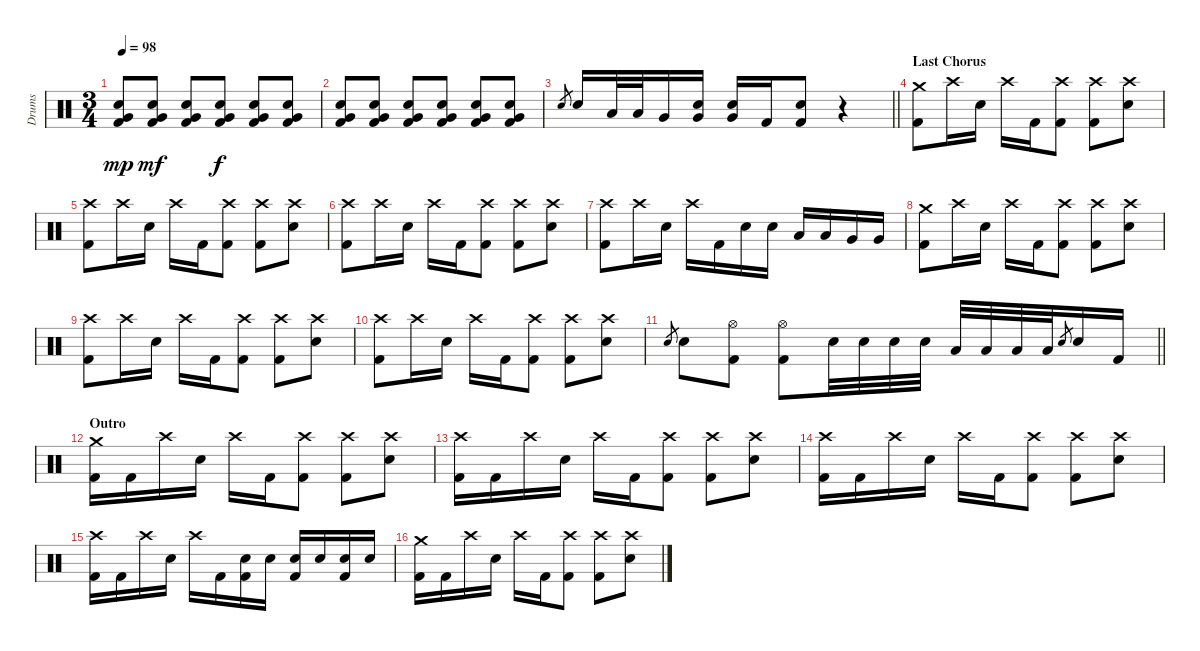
\track ("Drums" "Drums") {instrument percussion}
\staff {score}
\articulation defaults
\ts (3 4)
\tempo 98
\clef neutral
\ks c
("Very Low Tom (hit)" "Electric Snare (hit)" "Kick (hit) 2").8{dy mp} ("Very Low Tom (hit)" "Electric Snare (hit)" "Kick (hit) 2").8{dy mf} ("Very Low Tom (hit)" "Electric Snare (hit)" "Kick (hit) 2").8 ("Very Low Tom (hit)" "Electric Snare (hit)" "Kick (hit) 2").8{dy f} ("Very Low Tom (hit)" "Electric Snare (hit)" "Kick (hit) 2").8 ("Very Low Tom (hit)" "Electric Snare (hit)" "Kick (hit) 2").8 |
("Very Low Tom (hit)" "Electric Snare (hit)" "Kick (hit) 2").8 ("Very Low Tom (hit)" "Electric Snare (hit)" "Kick (hit) 2").8 ("Very Low Tom (hit)" "Electric Snare (hit)" "Kick (hit) 2").8 ("Very Low Tom (hit)" "Electric Snare (hit)" "Kick (hit) 2").8 ("Very Low Tom (hit)" "Electric Snare (hit)" "Kick (hit) 2").8 ("Very Low Tom (hit)" "Electric Snare (hit)" "Kick (hit) 2").8 |
\barLineRight lightlight "Electric Snare (hit)".8{gr} "Electric Snare (hit)".16 "Low Tom (hit)".32 "Low Tom (hit)".32 "Very Low Tom (hit)".16
("Very Low Tom (hit)" "Electric Snare (hit)").16 ("Very Low Tom (hit)" "Electric Snare (hit)").16 "Kick (hit) 2".16 ("Electric Snare (hit)" "Kick (hit) 2").8 r.4 |
\section ("" "Last Chorus")
("Crash medium (hit)" "Kick (hit) 2").8 "Crash high (hit)".16 "Electric Snare (hit)".16 "Crash high (hit)".16 "Kick (hit) 2".16 ("Crash high (hit)" "Kick (hit) 2").8 ("Crash high (hit)" "Kick (hit) 2").8 ("Crash high (hit)" "Electric Snare (hit)").8 |
("Crash high (hit)" "Kick (hit) 2").8 "Crash high (hit)".16 "Electric Snare (hit)".16 "Crash high (hit)".16 "Kick (hit) 2".16 ("Crash high (hit)" "Kick (hit) 2").8 ("Crash high (hit)" "Kick (hit) 2").8 ("Crash high (hit)" "Electric Snare (hit)").8 |
("Crash high (hit)" "Kick (hit) 2").8 "Crash high (hit)".16 "Electric Snare (hit)".16 "Crash high (hit)".16 "Kick (hit) 2".16 ("Crash high (hit)" "Kick (hit) 2").8 ("Crash high (hit)" "Kick (hit) 2").8 ("Crash high (hit)" "Electric Snare (hit)").8 |
("Crash high (hit)" "Kick (hit) 2").8 "Crash high (hit)".16 "Electric Snare (hit)".16 "Crash high (hit)".16 "Kick (hit) 2".16 "Electric Snare (hit)".16 "Electric Snare (hit)".16 "Low Tom (hit)".16 "Low Tom (hit)".16 "Very Low Tom (hit)".16 "Very Low Tom (hit)".16 |
("Crash medium (hit)" "Kick (hit) 2").8 "Crash high (hit)".16 "Electric Snare (hit)".16 "Crash high (hit)".16 "Kick (hit) 2".16 ("Crash high (hit)" "Kick (hit) 2").8 ("Crash high (hit)" "Kick (hit) 2").8 ("Crash high (hit)" "Electric Snare (hit)").8 |
("Crash high (hit)" "Kick (hit) 2").8 "Crash high (hit)".16 "Electric Snare (hit)".16 "Crash high (hit)".16 "Kick (hit) 2".16 ("Crash high (hit)" "Kick (hit) 2").8 ("Crash high (hit)" "Kick (hit) 2").8 ("Crash high (hit)" "Electric Snare (hit)").8 |
("Crash high (hit)" "Kick (hit) 2").8 "Crash high (hit)".16 "Electric Snare (hit)".16 "Crash high (hit)".16 "Kick (hit) 2".16 ("Crash high (hit)" "Kick (hit) 2").8 ("Crash high (hit)" "Kick (hit) 2").8 ("Crash high (hit)" "Electric Snare (hit)").8 |
\barLineRight lightlight "Electric Snare (hit)".8{gr} "Electric Snare (hit)".8
("Hi-Hat (open)" "Kick (hit) 2").8 ("Hi-Hat (open)" "Kick (hit) 2").8 "Electric Snare (hit)".32 "Electric Snare (hit)".32 "Electric Snare (hit)".32 "Electric Snare (hit)".32 "Low Tom (hit)".32 "Low Tom (hit)".32 "Low Tom (hit)".32 "Low Tom (hit)".32 "Electric Snare (hit)".8{gr} "Electric Snare (hit)".16 "Kick (hit) 2".16 |
\section ("" "Outro")
("Crash medium (hit)" "Kick (hit) 2").16 "Kick (hit) 2".16 "Crash high (hit)".16 "Electric Snare (hit)".16 "Crash high (hit)".16 "Kick (hit) 2".16 ("Crash high (hit)" "Kick (hit) 2").8 ("Crash high (hit)" "Kick (hit) 2").8 ("Crash high (hit)" "Electric Snare (hit)").8 |
("Crash high (hit)" "Kick (hit) 2").16 "Kick (hit) 2".16 "Crash high (hit)".16 "Electric Snare (hit)".16 "Crash high (hit)".16 "Kick (hit) 2".16 ("Crash high (hit)" "Kick (hit) 2").8 ("Crash high (hit)" "Kick (hit) 2").8 ("Crash high (hit)" "Electric Snare (hit)").8 |
("Crash high (hit)" "Kick (hit) 2").16 "Kick (hit) 2".16 "Crash high (hit)".16 "Electric Snare (hit)".16 "Crash high (hit)".16 "Kick (hit) 2".16 ("Crash high (hit)" "Kick (hit) 2").8 ("Crash high (hit)" "Kick (hit) 2").8 ("Crash high (hit)" "Electric Snare (hit)").8 |
("Crash high (hit)" "Kick (hit) 2").16 "Kick (hit) 2".16 "Crash high (hit)".16 "Electric Snare (hit)".16 "Crash high (hit)".16 "Kick (hit) 2".16 ("Electric Snare (hit)" "Kick (hit) 2").16 "Electric Snare (hit)".16 ("Electric Snare (hit)" "Kick (hit) 2").16 "Electric Snare (hit)".16 ("Electric Snare (hit)" "Kick (hit) 2").16 "Electric Snare (hit)".16 |
("Crash medium (hit)" "Kick (hit) 2").16 "Kick (hit) 2".16 "Crash high (hit)".16 "Electric Snare (hit)".16 "Crash high (hit)".16 "Kick (hit) 2".16 ("Crash high (hit)" "Kick (hit) 2").8 ("Crash high (hit)" "Kick (hit) 2").8 ("Crash high (hit)" "Electric Snare (hit)").8
